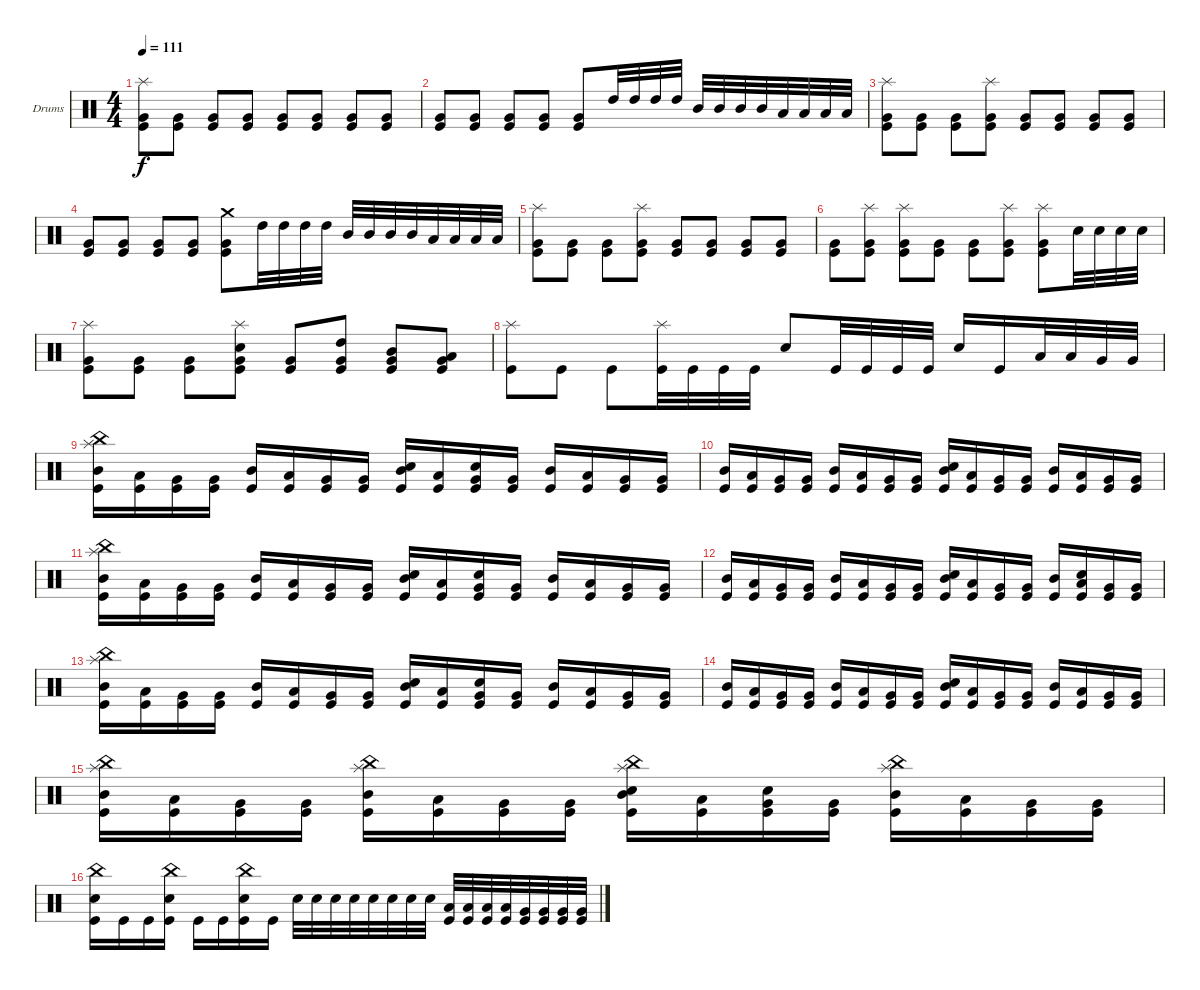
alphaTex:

\bracketExtendMode groupsimilarinstruments
\firstSystemTrackNameOrientation horizontal
\otherSystemsTrackNameOrientation horizontal
\track ("Drumkit" "Drums") {instrument percussion}
\staff {score}
\articulation defaults
\ts (4 4)
\tempo 111
\clef neutral
\ks c
("Splash (hit)" "Very Low Tom (hit)" "Kick (hit)").8{dy f} ("Very Low Tom (hit)" "Kick (hit)").8 ("Very Low Tom (hit)" "Kick (hit)").8 ("Very Low Tom (hit)" "Kick (hit)").8 ("Very Low Tom (hit)" "Kick (hit)").8 ("Very Low Tom (hit)" "Kick (hit)").8 ("Very Low Tom (hit)" "Kick (hit)").8 ("Very Low Tom (hit)" "Kick (hit)").8 |
("Very Low Tom (hit)" "Kick (hit)").8 ("Very Low Tom (hit)" "Kick (hit)").8 ("Very Low Tom (hit)" "Kick (hit)").8 ("Very Low Tom (hit)" "Kick (hit)").8 ("Very Low Tom (hit)" "Kick (hit)").8 "High Tom (hit)".32 "High Tom (hit)".32 "High Tom (hit)".32 "High Tom (hit)".32 "Mid Tom (hit)".32 "Mid Tom (hit)".32 "Mid Tom (hit)".32 "Mid Tom (hit)".32 "Low Tom (hit)".32 "Low Tom (hit)".32 "Low Tom (hit)".32 "Low Tom (hit)".32 |
("Splash (hit)" "Very Low Tom (hit)" "Kick (hit)").8 ("Very Low Tom (hit)" "Kick (hit)").8 ("Very Low Tom (hit)" "Kick (hit)").8 ("Splash (hit)" "Very Low Tom (hit)" "Kick (hit)").8 ("Very Low Tom (hit)" "Kick (hit)").8 ("Very Low Tom (hit)" "Kick (hit)").8 ("Very Low Tom (hit)" "Kick (hit)").8 ("Very Low Tom (hit)" "Kick (hit)").8 |
("Very Low Tom (hit)" "Kick (hit)").8 ("Very Low Tom (hit)" "Kick (hit)").8 ("Very Low Tom (hit)" "Kick (hit)").8 ("Very Low Tom (hit)" "Kick (hit)").8 ("Crash medium (hit)" "Very Low Tom (hit)" "Kick (hit)").8 "High Tom (hit)".32 "High Tom (hit)".32 "High Tom (hit)".32 "High Tom (hit)".32 "Mid Tom (hit)".32 "Mid Tom (hit)".32 "Mid Tom (hit)".32 "Mid Tom (hit)".32 "Low Tom (hit)".32 "Low Tom (hit)".32 "Low Tom (hit)".32 "Low Tom (hit)".32 |
("Splash (hit)" "Very Low Tom (hit)" "Kick (hit)").8 ("Very Low Tom (hit)" "Kick (hit)").8 ("Very Low Tom (hit)" "Kick (hit)").8 ("Splash (hit)" "Very Low Tom (hit)" "Kick (hit)").8 ("Very Low Tom (hit)" "Kick (hit)").8 ("Very Low Tom (hit)" "Kick (hit)").8 ("Very Low Tom (hit)" "Kick (hit)").8 ("Very Low Tom (hit)" "Kick (hit)").8 |
("Very Low Tom (hit)" "Kick (hit)").8 ("Splash (hit)" "Very Low Tom (hit)" "Kick (hit)").8 ("Splash (hit)" "Very Low Tom (hit)" "Kick (hit)").8 ("Very Low Tom (hit)" "Kick (hit)").8 ("Very Low Tom (hit)" "Kick (hit)").8 ("Splash (hit)" "Very Low Tom (hit)" "Kick (hit)").8 ("Splash (hit)" "Very Low Tom (hit)" "Kick (hit)").8 "Snare (hit) 2".32 "Snare (hit) 2".32 "Snare (hit) 2".32 "Snare (hit) 2".32 |
("Splash (hit)" "Very Low Tom (hit)" "Kick (hit)").8 ("Very Low Tom (hit)" "Kick (hit)").8 ("Very Low Tom (hit)" "Kick (hit)").8 ("Splash (hit)" "Snare (hit) 2" "Very Low Tom (hit)" "Kick (hit)").8 ("Very Low Tom (hit)" "Kick (hit)").8 ("High Tom (hit)" "Very Low Tom (hit)" "Kick (hit)").8 ("Mid Tom (hit)" "Very Low Tom (hit)" "Kick (hit)").8 ("Low Tom (hit)" "Very Low Tom (hit)" "Kick (hit)").8 |
("Splash (hit)" "Kick (hit)").8 "Kick (hit)".8 "Kick (hit)".8 ("Splash (hit)" "Kick (hit)").32 "Kick (hit)".32 "Kick (hit)".32 "Kick (hit)".32 "Snare (hit) 2".8 "Kick (hit)".32 "Kick (hit)".32 "Kick (hit)".32 "Kick (hit)".32 "Snare (hit) 2".16 "Kick (hit)".16 "Low Tom (hit)".32 "Low Tom (hit)".32 "Very Low Tom (hit)".32 "Very Low Tom (hit)".32 |
("Splash (hit)" "China (hit)" "Mid Tom (hit)" "Kick (hit)").16 ("Low Tom (hit)" "Kick (hit)").16 ("Very Low Tom (hit)" "Kick (hit)").16 ("Very Low Tom (hit)" "Kick (hit)").16 ("Mid Tom (hit)" "Kick (hit)").16 ("Low Tom (hit)" "Kick (hit)").16 ("Very Low Tom (hit)" "Kick (hit)").16 ("Very Low Tom (hit)" "Kick (hit)").16 ("Snare (hit) 2" "Mid Tom (hit)" "Kick (hit)").16 ("Low Tom (hit)" "Kick (hit)").16 ("Snare (hit) 2" "Very Low Tom (hit)" "Kick (hit)").16 ("Very Low Tom (hit)" "Kick (hit)").16 ("Mid Tom (hit)" "Kick (hit)").16 ("Low Tom (hit)" "Kick (hit)").16 ("Very Low Tom (hit)" "Kick (hit)").16 ("Very Low Tom (hit)" "Kick (hit)").16 |
("Mid Tom (hit)" "Kick (hit)").16 ("Low Tom (hit)" "Kick (hit)").16 ("Very Low Tom (hit)" "Kick (hit)").16 ("Very Low Tom (hit)" "Kick (hit)").16 ("Mid Tom (hit)" "Kick (hit)").16 ("Low Tom (hit)" "Kick (hit)").16 ("Very Low Tom (hit)" "Kick (hit)").16 ("Very Low Tom (hit)" "Kick (hit)").16 ("Snare (hit) 2" "Mid Tom (hit)" "Kick (hit)").16 ("Low Tom (hit)" "Kick (hit)").16 ("Very Low Tom (hit)" "Kick (hit)").16 ("Very Low Tom (hit)" "Kick (hit)").16 ("Mid Tom (hit)" "Kick (hit)").16 ("Low Tom (hit)" "Kick (hit)").16 ("Very Low Tom (hit)" "Kick (hit)").16 ("Very Low Tom (hit)" "Kick (hit)").16 |
("Splash (hit)" "China (hit)" "Mid Tom (hit)" "Kick (hit)").16 ("Low Tom (hit)" "Kick (hit)").16 ("Very Low Tom (hit)" "Kick (hit)").16 ("Very Low Tom (hit)" "Kick (hit)").16 ("Mid Tom (hit)" "Kick (hit)").16 ("Low Tom (hit)" "Kick (hit)").16 ("Very Low Tom (hit)" "Kick (hit)").16 ("Very Low Tom (hit)" "Kick (hit)").16 ("Snare (hit) 2" "Mid Tom (hit)" "Kick (hit)").16 ("Low Tom (hit)" "Kick (hit)").16 ("Snare (hit) 2" "Very Low Tom (hit)" "Kick (hit)").16 ("Very Low Tom (hit)" "Kick (hit)").16 ("Mid Tom (hit)" "Kick (hit)").16 ("Low Tom (hit)" "Kick (hit)").16 ("Very Low Tom (hit)" "Kick (hit)").16 ("Very Low Tom (hit)" "Kick (hit)").16 |
("Mid Tom (hit)" "Kick (hit)").16 ("Low Tom (hit)" "Kick (hit)").16 ("Very Low Tom (hit)" "Kick (hit)").16 ("Very Low Tom (hit)" "Kick (hit)").16 ("Mid Tom (hit)" "Kick (hit)").16 ("Low Tom (hit)" "Kick (hit)").16 ("Very Low Tom (hit)" "Kick (hit)").16 ("Very Low Tom (hit)" "Kick (hit)").16 ("Snare (hit) 2" "Mid Tom (hit)" "Kick (hit)").16 ("Low Tom (hit)" "Kick (hit)").16 ("Very Low Tom (hit)" "Kick (hit)").16 ("Very Low Tom (hit)" "Kick (hit)").16 ("Mid Tom (hit)" "Kick (hit)").16 ("Snare (hit) 2" "Low Tom (hit)" "Kick (hit)").16 ("Very Low Tom (hit)" "Kick (hit)").16 ("Very Low Tom (hit)" "Kick (hit)").16 |
("Splash (hit)" "China (hit)" "Mid Tom (hit)" "Kick (hit)").16 ("Low Tom (hit)" "Kick (hit)").16 ("Very Low Tom (hit)" "Kick (hit)").16 ("Very Low Tom (hit)" "Kick (hit)").16 ("Mid Tom (hit)" "Kick (hit)").16 ("Low Tom (hit)" "Kick (hit)").16 ("Very Low Tom (hit)" "Kick (hit)").16 ("Very Low Tom (hit)" "Kick (hit)").16 ("Snare (hit) 2" "Mid Tom (hit)" "Kick (hit)").16 ("Low Tom (hit)" "Kick (hit)").16 ("Snare (hit) 2" "Very Low Tom (hit)" "Kick (hit)").16 ("Very Low Tom (hit)" "Kick (hit)").16 ("Mid Tom (hit)" "Kick (hit)").16 ("Low Tom (hit)" "Kick (hit)").16 ("Very Low Tom (hit)" "Kick (hit)").16 ("Very Low Tom (hit)" "Kick (hit)").16 |
("Mid Tom (hit)" "Kick (hit)").16 ("Low Tom (hit)" "Kick (hit)").16 ("Very Low Tom (hit)" "Kick (hit)").16 ("Very Low Tom (hit)" "Kick (hit)").16 ("Mid Tom (hit)" "Kick (hit)").16 ("Low Tom (hit)" "Kick (hit)").16 ("Very Low Tom (hit)" "Kick (hit)").16 ("Very Low Tom (hit)" "Kick (hit)").16 ("Snare (hit) 2" "Mid Tom (hit)" "Kick (hit)").16 ("Low Tom (hit)" "Kick (hit)").16 ("Very Low Tom (hit)" "Kick (hit)").16 ("Very Low Tom (hit)" "Kick (hit)").16 ("Mid Tom (hit)" "Kick (hit)").16 ("Low Tom (hit)" "Kick (hit)").16 ("Very Low Tom (hit)" "Kick (hit)").16 ("Very Low Tom (hit)" "Kick (hit)").16 |
("Splash (hit)" "China (hit)" "Mid Tom (hit)" "Kick (hit)").16 ("Low Tom (hit)" "Kick (hit)").16 ("Very Low Tom (hit)" "Kick (hit)").16 ("Very Low Tom (hit)" "Kick (hit)").16 ("Splash (hit)" "China (hit)" "Mid Tom (hit)" "Kick (hit)").16 ("Low Tom (hit)" "Kick (hit)").16 ("Very Low Tom (hit)" "Kick (hit)").16 ("Very Low Tom (hit)" "Kick (hit)").16 ("Splash (hit)" "China (hit)" "Snare (hit) 2" "Mid Tom (hit)" "Kick (hit)").16 ("Low Tom (hit)" "Kick (hit)").16 ("Snare (hit) 2" "Very Low Tom (hit)" "Kick (hit)").16 ("Very Low Tom (hit)" "Kick (hit)").16 ("Splash (hit)" "China (hit)" "Mid Tom (hit)" "Kick (hit)").16 ("Low Tom (hit)" "Kick (hit)").16 ("Very Low Tom (hit)" "Kick (hit)").16 ("Very Low Tom (hit)" "Kick (hit)").16 |
("China (hit)" "Snare (hit) 2" "Kick (hit)").16 "Kick (hit)".16 "Kick (hit)".16 ("China (hit)" "Snare (hit) 2" "Kick (hit)").16 "Kick (hit)".16 "Kick (hit)".16 ("China (hit)" "Snare (hit) 2" "Kick (hit)").16 "Kick (hit)".16 "Snare (hit) 2".32 "Snare (hit) 2".32 "Snare (hit) 2".32 "Snare (hit) 2".32 "Snare (hit) 2".32 "Snare (hit) 2".32 "Snare (hit) 2".32 "Snare (hit) 2".32 ("Low Tom (hit)" "Kick (hit)").32 ("Low Tom (hit)" "Kick (hit)").32 ("Low Tom (hit)" "Kick (hit)").32 ("Low Tom (hit)" "Kick (hit)").32 ("Very Low Tom (hit)" "Kick (hit)").32 ("Very Low Tom (hit)" "Kick (hit)").32 ("Very Low Tom (hit)" "Kick (hit)").32 ("Very Low Tom (hit)" "Kick (hit)").32
